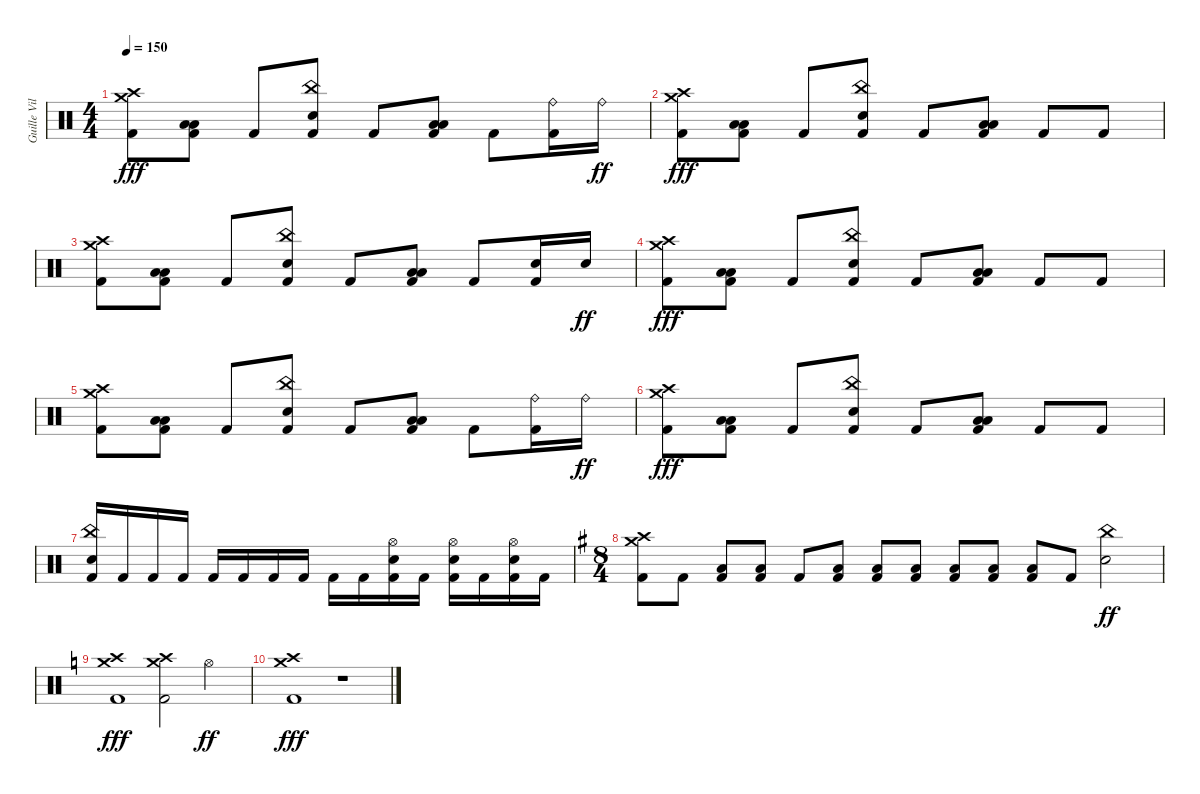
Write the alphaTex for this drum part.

\track ("Guille Vila" "Guille Vil") {instrument percussion}
\staff {score}
\articulation defaults
\ts (4 4)
\tempo 150
\clef neutral
\ks c
("Crash medium (hit)" "Crash high (hit)" "Kick (hit) 2").8{dy fff} ("Low Tom (hit)" "Low Tom (hit)" "Kick (hit) 2").8 "Kick (hit) 2".8 ("China (hit)" "Snare (hit) 2" "Kick (hit) 2").8 "Kick (hit) 2".8 ("Low Floor Tom (hit)" "Low Tom (hit)" "Kick (hit) 2").8 "Kick (hit) 2".8 ("Ride (bell)" "Kick (hit) 2").16 "Ride (bell)".16{dy ff} |
("Crash medium (hit)" "Crash high (hit)" "Kick (hit) 2").8{dy fff} ("Low Tom (hit)" "Low Tom (hit)" "Kick (hit) 2").8 "Kick (hit) 2".8 ("China (hit)" "Snare (hit) 2" "Kick (hit) 2").8 "Kick (hit) 2".8 ("Low Floor Tom (hit)" "Low Tom (hit)" "Kick (hit) 2").8 "Kick (hit) 2".8 "Kick (hit) 2".8 |
("Crash medium (hit)" "Crash high (hit)" "Kick (hit) 2").8 ("Low Tom (hit)" "Low Tom (hit)" "Kick (hit) 2").8 "Kick (hit) 2".8 ("China (hit)" "Snare (hit) 2" "Kick (hit) 2").8 "Kick (hit) 2".8 ("Low Floor Tom (hit)" "Low Tom (hit)" "Kick (hit) 2").8 "Kick (hit) 2".8 ("Snare (hit) 2" "Kick (hit) 2").16 "Snare (hit) 2".16{dy ff} |
("Crash medium (hit)" "Crash high (hit)" "Kick (hit) 2").8{dy fff} ("Low Tom (hit)" "Low Tom (hit)" "Kick (hit) 2").8 "Kick (hit) 2".8 ("China (hit)" "Snare (hit) 2" "Kick (hit) 2").8 "Kick (hit) 2".8 ("Low Floor Tom (hit)" "Low Tom (hit)" "Kick (hit) 2").8 "Kick (hit) 2".8 "Kick (hit) 2".8 |
("Crash medium (hit)" "Crash high (hit)" "Kick (hit) 2").8 ("Low Tom (hit)" "Low Tom (hit)" "Kick (hit) 2").8 "Kick (hit) 2".8 ("China (hit)" "Snare (hit) 2" "Kick (hit) 2").8 "Kick (hit) 2".8 ("Low Floor Tom (hit)" "Low Tom (hit)" "Kick (hit) 2").8 "Kick (hit) 2".8 ("Ride (bell)" "Kick (hit) 2").16 "Ride (bell)".16{dy ff} |
("Crash medium (hit)" "Crash high (hit)" "Kick (hit) 2").8{dy fff} ("Low Tom (hit)" "Low Tom (hit)" "Kick (hit) 2").8 "Kick (hit) 2".8 ("China (hit)" "Snare (hit) 2" "Kick (hit) 2").8 "Kick (hit) 2".8 ("Low Floor Tom (hit)" "Low Tom (hit)" "Kick (hit) 2").8 "Kick (hit) 2".8 "Kick (hit) 2".8 |
("China (hit)" "Snare (hit) 2" "Kick (hit) 2").16 "Kick (hit) 2".16 "Kick (hit) 2".16 "Kick (hit) 2".16 "Kick (hit) 2".16 "Kick (hit) 2".16 "Kick (hit) 2".16 "Kick (hit) 2".16 "Kick (hit) 2".16 "Kick (hit) 2".16 ("Hi-Hat (open)" "Snare (hit) 2" "Kick (hit) 2").16 "Kick (hit) 2".16 ("Hi-Hat (open)" "Snare (hit) 2" "Kick (hit) 2").16 "Kick (hit) 2".16 ("Hi-Hat (open)" "Snare (hit) 2" "Kick (hit) 2").16 "Kick (hit) 2".16 |
\ts (8 4)
\ks g
("Crash medium (hit)" "Crash high (hit)" "Kick (hit) 2").8 "Kick (hit) 2".8 ("Low Tom (hit)" "Kick (hit) 2").8 ("Low Tom (hit)" "Kick (hit) 2").8 "Kick (hit) 2".8 ("Low Tom (hit)" "Kick (hit) 2").8 ("Low Tom (hit)" "Kick (hit) 2").8 ("Low Tom (hit)" "Kick (hit) 2").8 ("Low Tom (hit)" "Kick (hit) 2").8 ("Low Floor Tom (hit)" "Kick (hit) 2").8 ("Low Floor Tom (hit)" "Kick (hit) 2").8 "Kick (hit) 2".8 ("China (hit)" "Snare (hit) 2").2{dy ff} |
\ks c
("Crash medium (hit)" "Crash high (hit)" "Kick (hit) 2").1{dy fff} ("Crash medium (hit)" "Crash high (hit)" "Kick (hit) 2").2 "Hi-Hat (open)".2{dy ff} |
("Crash medium (hit)" "Crash high (hit)" "Kick (hit) 2").1{dy fff} r.1
